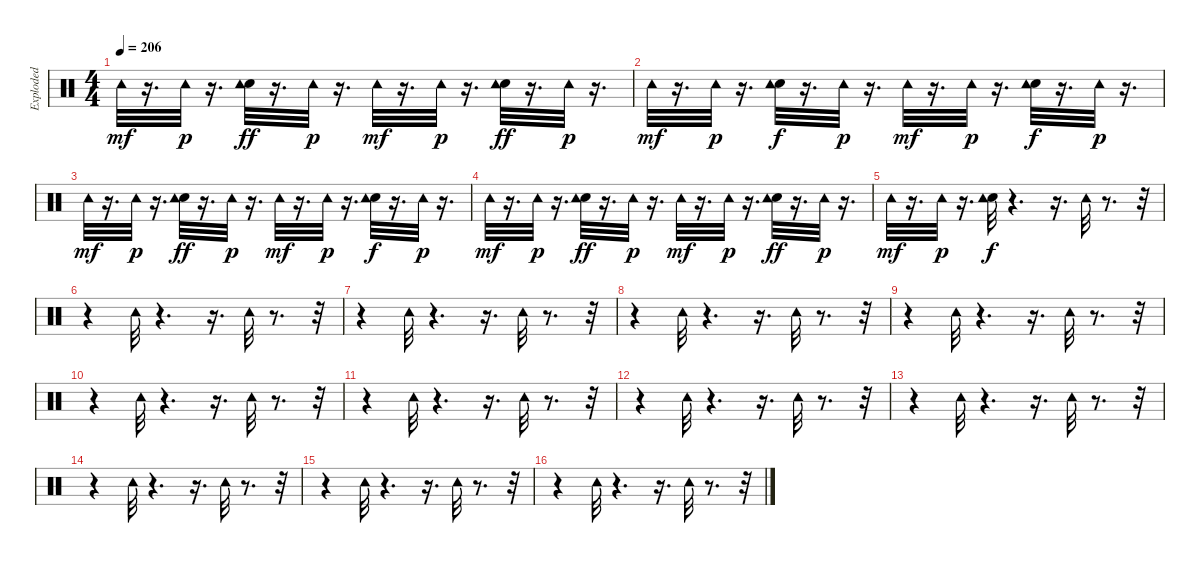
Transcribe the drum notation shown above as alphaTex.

\track ("Exploded" "Exploded") {instrument percussion}
\staff {score}
\articulation defaults
\ts (4 4)
\tempo 206
\clef neutral
\ks c "Tambourine (hit)".32{dy mf}
r.16{d} "Tambourine (hit)".32{dy p} r.16{d} ("Hand Clap (hit)" "Tambourine (hit)").32{dy ff} r.16{d} "Tambourine (hit)".32{dy p} r.16{d} "Tambourine (hit)".32{dy mf} r.16{d} "Tambourine (hit)".32{dy p} r.16{d} ("Hand Clap (hit)" "Tambourine (hit)").32{dy ff} r.16{d} "Tambourine (hit)".32{dy p} r.16{d} |
"Tambourine (hit)".32{dy mf} r.16{d} "Tambourine (hit)".32{dy p} r.16{d} ("Hand Clap (hit)" "Tambourine (hit)").32{dy f} r.16{d} "Tambourine (hit)".32{dy p} r.16{d} "Tambourine (hit)".32{dy mf} r.16{d} "Tambourine (hit)".32{dy p} r.16{d} ("Hand Clap (hit)" "Tambourine (hit)").32{dy f} r.16{d} "Tambourine (hit)".32{dy p} r.16{d} |
"Tambourine (hit)".32{dy mf} r.16{d} "Tambourine (hit)".32{dy p} r.16{d} ("Hand Clap (hit)" "Tambourine (hit)").32{dy ff} r.16{d} "Tambourine (hit)".32{dy p} r.16{d} "Tambourine (hit)".32{dy mf} r.16{d} "Tambourine (hit)".32{dy p} r.16{d} ("Hand Clap (hit)" "Tambourine (hit)").32{dy f} r.16{d} "Tambourine (hit)".32{dy p} r.16{d} |
"Tambourine (hit)".32{dy mf} r.16{d} "Tambourine (hit)".32{dy p} r.16{d} ("Hand Clap (hit)" "Tambourine (hit)").32{dy ff} r.16{d} "Tambourine (hit)".32{dy p} r.16{d} "Tambourine (hit)".32{dy mf} r.16{d} "Tambourine (hit)".32{dy p} r.16{d} ("Hand Clap (hit)" "Tambourine (hit)").32{dy ff} r.16{d} "Tambourine (hit)".32{dy p} r.16{d} |
"Tambourine (hit)".32{dy mf} r.16{d} "Tambourine (hit)".32{dy p} r.16{d} ("Hand Clap (hit)" "Tambourine (hit)").32{dy f} r.4{d} r.16{d} "Tambourine (hit)".32 r.8{d} r.32 |
r.4 "Tambourine (hit)".32 r.4{d} r.16{d} "Tambourine (hit)".32 r.8{d} r.32 |
r.4 "Tambourine (hit)".32 r.4{d} r.16{d} "Tambourine (hit)".32 r.8{d} r.32 |
r.4 "Tambourine (hit)".32 r.4{d} r.16{d} "Tambourine (hit)".32 r.8{d} r.32 |
r.4 "Tambourine (hit)".32 r.4{d} r.16{d} "Tambourine (hit)".32 r.8{d} r.32 |
r.4 "Tambourine (hit)".32 r.4{d} r.16{d} "Tambourine (hit)".32 r.8{d} r.32 |
r.4 "Tambourine (hit)".32 r.4{d} r.16{d} "Tambourine (hit)".32 r.8{d} r.32 |
r.4 "Tambourine (hit)".32 r.4{d} r.16{d} "Tambourine (hit)".32 r.8{d} r.32 |
r.4 "Tambourine (hit)".32 r.4{d} r.16{d} "Tambourine (hit)".32 r.8{d} r.32 |
r.4 "Tambourine (hit)".32 r.4{d} r.16{d} "Tambourine (hit)".32 r.8{d} r.32 |
r.4 "Tambourine (hit)".32 r.4{d} r.16{d} "Tambourine (hit)".32 r.8{d} r.32 |
r.4 "Tambourine (hit)".32 r.4{d} r.16{d} "Tambourine (hit)".32 r.8{d} r.32
